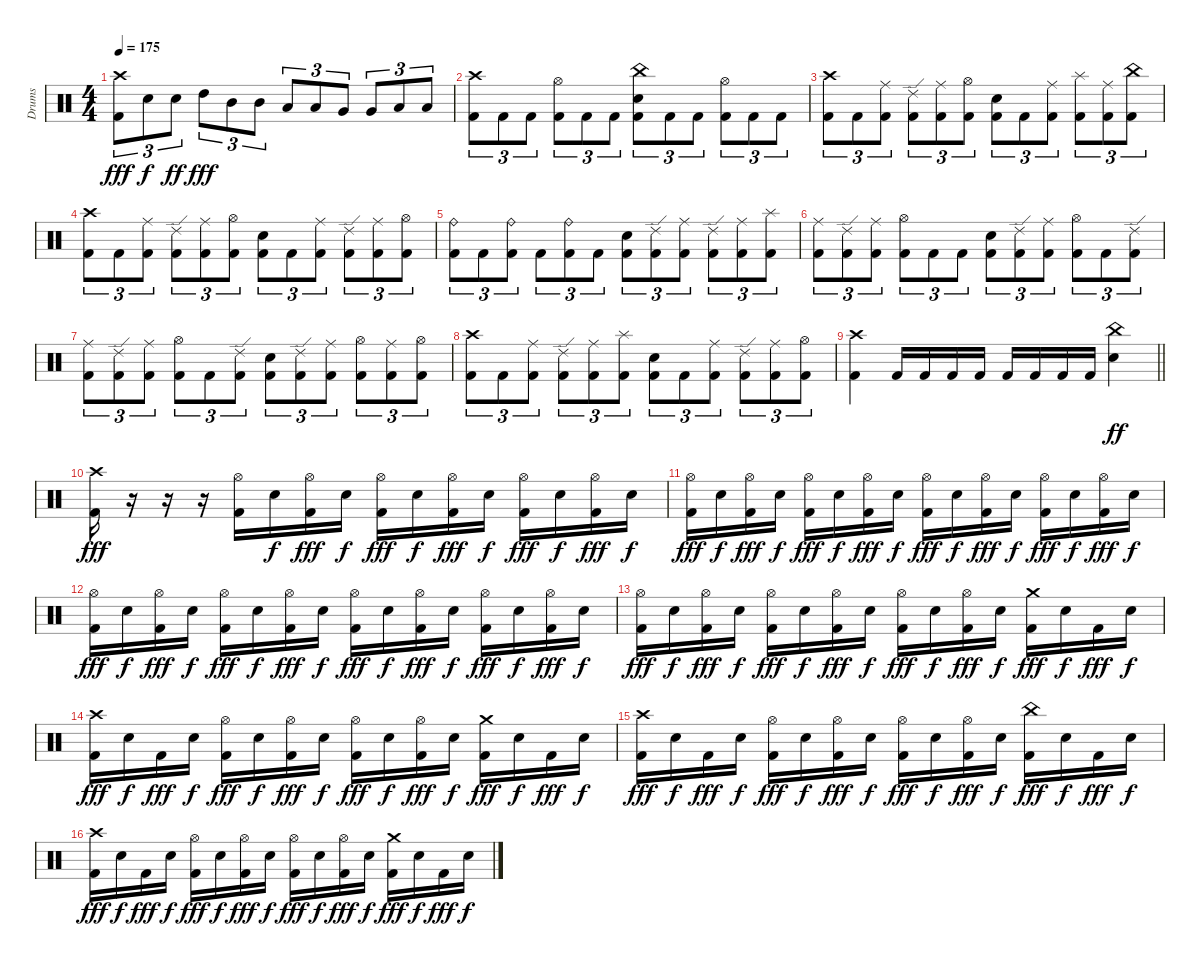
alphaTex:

\track ("Drums" "Drums") {instrument percussion}
\staff {score}
\articulation defaults
\ts (4 4)
\tempo 175
\clef neutral
\ks c
("Crash high (hit)" "Kick (hit) 2").8{tu (3 2) dy fff} "Snare (hit) 2".8{tu (3 2) dy f} "Snare (hit) 2".8{tu (3 2) dy ff} "High Tom (hit)".8{tu (3 2) dy fff} "Mid Tom (hit)".8{tu (3 2)} "Mid Tom (hit)".8{tu (3 2)} "Low Tom (hit)".8{tu (3 2)} "Low Tom (hit)".8{tu (3 2)} "Very Low Tom (hit)".8{tu (3 2)} "Very Low Tom (hit)".8{tu (3 2)} "Low Floor Tom (hit)".8{tu (3 2)} "Low Floor Tom (hit)".8{tu (3 2)} |
("Crash high (hit)" "Kick (hit) 2").8{tu (3 2)} "Kick (hit) 2".8{tu (3 2)} "Kick (hit) 2".8{tu (3 2)} ("Hi-Hat (open)" "Kick (hit) 2").8{tu (3 2)} "Kick (hit) 2".8{tu (3 2)} "Kick (hit) 2".8{tu (3 2)} ("China (hit)" "Snare (hit) 2" "Kick (hit) 2").8{tu (3 2)} "Kick (hit) 2".8{tu (3 2)} "Kick (hit) 2".8{tu (3 2)} ("Hi-Hat (open)" "Kick (hit) 2").8{tu (3 2)} "Kick (hit) 2".8{tu (3 2)} "Kick (hit) 2".8{tu (3 2)} |
("Crash high (hit)" "Kick (hit) 2").8{tu (3 2)} "Kick (hit) 2".8{tu (3 2)} ("Ride (middle)" "Kick (hit) 2").8{tu (3 2)} ("Ride (edge) 2" "Kick (hit) 2").8{tu (3 2)} ("Ride (middle)" "Kick (hit) 2").8{tu (3 2)} ("Hi-Hat (open)" "Kick (hit) 2").8{tu (3 2)} ("Snare (hit) 2" "Kick (hit) 2").8{tu (3 2)} "Kick (hit) 2".8{tu (3 2)} ("Ride (middle)" "Kick (hit) 2").8{tu (3 2)} ("Splash (hit)" "Kick (hit) 2").8{tu (3 2)} ("Ride (middle)" "Kick (hit) 2").8{tu (3 2)} ("China (hit)" "Kick (hit) 2").8{tu (3 2)} |
("Crash high (hit)" "Kick (hit) 2").8{tu (3 2)} "Kick (hit) 2".8{tu (3 2)} ("Ride (middle)" "Kick (hit) 2").8{tu (3 2)} ("Ride (edge) 2" "Kick (hit) 2").8{tu (3 2)} ("Ride (middle)" "Kick (hit) 2").8{tu (3 2)} ("Hi-Hat (open)" "Kick (hit) 2").8{tu (3 2)} ("Snare (hit) 2" "Kick (hit) 2").8{tu (3 2)} "Kick (hit) 2".8{tu (3 2)} ("Ride (middle)" "Kick (hit) 2").8{tu (3 2)} ("Ride (edge) 2" "Kick (hit) 2").8{tu (3 2)} ("Ride (middle)" "Kick (hit) 2").8{tu (3 2)} ("Hi-Hat (open)" "Kick (hit) 2").8{tu (3 2)} |
("Ride (bell)" "Kick (hit) 2").8{tu (3 2)} "Kick (hit) 2".8{tu (3 2)} ("Ride (bell)" "Kick (hit) 2").8{tu (3 2)} "Kick (hit) 2".8{tu (3 2)} ("Ride (bell)" "Kick (hit) 2").8{tu (3 2)} "Kick (hit) 2".8{tu (3 2)} ("Snare (hit) 2" "Kick (hit) 2").8{tu (3 2)} ("Ride (edge) 2" "Kick (hit) 2").8{tu (3 2)} ("Ride (middle)" "Kick (hit) 2").8{tu (3 2)} ("Ride (edge) 2" "Kick (hit) 2").8{tu (3 2)} ("Ride (middle)" "Kick (hit) 2").8{tu (3 2)} ("Splash (hit)" "Kick (hit) 2").8{tu (3 2)} |
("Ride (middle)" "Kick (hit) 2").8{tu (3 2)} ("Ride (edge) 2" "Kick (hit) 2").8{tu (3 2)} ("Ride (middle)" "Kick (hit) 2").8{tu (3 2)} ("Hi-Hat (open)" "Kick (hit) 2").8{tu (3 2)} "Kick (hit) 2".8{tu (3 2)} "Kick (hit) 2".8{tu (3 2)} ("Snare (hit) 2" "Kick (hit) 2").8{tu (3 2)} ("Ride (edge) 2" "Kick (hit) 2").8{tu (3 2)} ("Ride (middle)" "Kick (hit) 2").8{tu (3 2)} ("Hi-Hat (open)" "Kick (hit) 2").8{tu (3 2)} "Kick (hit) 2".8{tu (3 2)} ("Ride (edge) 2" "Kick (hit) 2").8{tu (3 2)} |
("Ride (middle)" "Kick (hit) 2").8{tu (3 2)} ("Ride (edge) 2" "Kick (hit) 2").8{tu (3 2)} ("Ride (middle)" "Kick (hit) 2").8{tu (3 2)} ("Hi-Hat (open)" "Kick (hit) 2").8{tu (3 2)} "Kick (hit) 2".8{tu (3 2)} ("Ride (edge) 2" "Kick (hit) 2").8{tu (3 2)} ("Snare (hit) 2" "Kick (hit) 2").8{tu (3 2)} ("Ride (edge) 2" "Kick (hit) 2").8{tu (3 2)} ("Ride (middle)" "Kick (hit) 2").8{tu (3 2)} ("Hi-Hat (open)" "Kick (hit) 2").8{tu (3 2)} ("Ride (middle)" "Kick (hit) 2").8{tu (3 2)} ("Hi-Hat (open)" "Kick (hit) 2").8{tu (3 2)} |
("Crash high (hit)" "Kick (hit) 2").8{tu (3 2)} "Kick (hit) 2".8{tu (3 2)} ("Ride (middle)" "Kick (hit) 2").8{tu (3 2)} ("Ride (edge) 2" "Kick (hit) 2").8{tu (3 2)} ("Ride (middle)" "Kick (hit) 2").8{tu (3 2)} ("Splash (hit)" "Kick (hit) 2").8{tu (3 2)} ("Snare (hit) 2" "Kick (hit) 2").8{tu (3 2)} "Kick (hit) 2".8{tu (3 2)} ("Ride (middle)" "Kick (hit) 2").8{tu (3 2)} ("Ride (edge) 2" "Kick (hit) 2").8{tu (3 2)} ("Ride (middle)" "Kick (hit) 2").8{tu (3 2)} ("Hi-Hat (open)" "Kick (hit) 2").8{tu (3 2)} |
\barLineRight lightlight
("Crash high (hit)" "Kick (hit) 2").4 "Kick (hit) 2".16 "Kick (hit) 2".16 "Kick (hit) 2".16 "Kick (hit) 2".16 "Kick (hit) 2".16 "Kick (hit) 2".16 "Kick (hit) 2".16 "Kick (hit) 2".16 ("China (hit)" "Snare (hit) 2").4{dy ff} |
("Crash high (hit)" "Kick (hit) 2").16{dy fff} r.16 r.16 r.16 ("Hi-Hat (open)" "Kick (hit) 2").16 "Snare (hit) 2".16{dy f} ("Hi-Hat (open)" "Kick (hit) 2").16{dy fff} "Snare (hit) 2".16{dy f} ("Hi-Hat (open)" "Kick (hit) 2").16{dy fff} "Snare (hit) 2".16{dy f} ("Hi-Hat (open)" "Kick (hit) 2").16{dy fff} "Snare (hit) 2".16{dy f} ("Hi-Hat (open)" "Kick (hit) 2").16{dy fff} "Snare (hit) 2".16{dy f} ("Hi-Hat (open)" "Kick (hit) 2").16{dy fff} "Snare (hit) 2".16{dy f} |
("Hi-Hat (open)" "Kick (hit) 2").16{dy fff} "Snare (hit) 2".16{dy f} ("Hi-Hat (open)" "Kick (hit) 2").16{dy fff} "Snare (hit) 2".16{dy f} ("Hi-Hat (open)" "Kick (hit) 2").16{dy fff} "Snare (hit) 2".16{dy f} ("Hi-Hat (open)" "Kick (hit) 2").16{dy fff} "Snare (hit) 2".16{dy f} ("Hi-Hat (open)" "Kick (hit) 2").16{dy fff} "Snare (hit) 2".16{dy f} ("Hi-Hat (open)" "Kick (hit) 2").16{dy fff} "Snare (hit) 2".16{dy f} ("Hi-Hat (open)" "Kick (hit) 2").16{dy fff} "Snare (hit) 2".16{dy f} ("Hi-Hat (open)" "Kick (hit) 2").16{dy fff} "Snare (hit) 2".16{dy f} |
("Hi-Hat (open)" "Kick (hit) 2").16{dy fff} "Snare (hit) 2".16{dy f} ("Hi-Hat (open)" "Kick (hit) 2").16{dy fff} "Snare (hit) 2".16{dy f} ("Hi-Hat (open)" "Kick (hit) 2").16{dy fff} "Snare (hit) 2".16{dy f} ("Hi-Hat (open)" "Kick (hit) 2").16{dy fff} "Snare (hit) 2".16{dy f} ("Hi-Hat (open)" "Kick (hit) 2").16{dy fff} "Snare (hit) 2".16{dy f} ("Hi-Hat (open)" "Kick (hit) 2").16{dy fff} "Snare (hit) 2".16{dy f} ("Hi-Hat (open)" "Kick (hit) 2").16{dy fff} "Snare (hit) 2".16{dy f} ("Hi-Hat (open)" "Kick (hit) 2").16{dy fff} "Snare (hit) 2".16{dy f} |
("Hi-Hat (open)" "Kick (hit) 2").16{dy fff} "Snare (hit) 2".16{dy f} ("Hi-Hat (open)" "Kick (hit) 2").16{dy fff} "Snare (hit) 2".16{dy f} ("Hi-Hat (open)" "Kick (hit) 2").16{dy fff} "Snare (hit) 2".16{dy f} ("Hi-Hat (open)" "Kick (hit) 2").16{dy fff} "Snare (hit) 2".16{dy f} ("Hi-Hat (open)" "Kick (hit) 2").16{dy fff} "Snare (hit) 2".16{dy f} ("Hi-Hat (open)" "Kick (hit) 2").16{dy fff} "Snare (hit) 2".16{dy f} ("Crash medium (hit)" "Kick (hit) 2").16{dy fff} "Snare (hit) 2".16{dy f} "Kick (hit) 2".16{dy fff} "Snare (hit) 2".16{dy f} |
("Crash high (hit)" "Kick (hit) 2").16{dy fff} "Snare (hit) 2".16{dy f} "Kick (hit) 2".16{dy fff} "Snare (hit) 2".16{dy f} ("Hi-Hat (open)" "Kick (hit) 2").16{dy fff} "Snare (hit) 2".16{dy f} ("Hi-Hat (open)" "Kick (hit) 2").16{dy fff} "Snare (hit) 2".16{dy f} ("Hi-Hat (open)" "Kick (hit) 2").16{dy fff} "Snare (hit) 2".16{dy f} ("Hi-Hat (open)" "Kick (hit) 2").16{dy fff} "Snare (hit) 2".16{dy f} ("Crash medium (hit)" "Kick (hit) 2").16{dy fff} "Snare (hit) 2".16{dy f} "Kick (hit) 2".16{dy fff} "Snare (hit) 2".16{dy f} |
("Crash high (hit)" "Kick (hit) 2").16{dy fff} "Snare (hit) 2".16{dy f} "Kick (hit) 2".16{dy fff} "Snare (hit) 2".16{dy f} ("Hi-Hat (open)" "Kick (hit) 2").16{dy fff} "Snare (hit) 2".16{dy f} ("Hi-Hat (open)" "Kick (hit) 2").16{dy fff} "Snare (hit) 2".16{dy f} ("Hi-Hat (open)" "Kick (hit) 2").16{dy fff} "Snare (hit) 2".16{dy f} ("Hi-Hat (open)" "Kick (hit) 2").16{dy fff} "Snare (hit) 2".16{dy f} ("China (hit)" "Kick (hit) 2").16{dy fff} "Snare (hit) 2".16{dy f} "Kick (hit) 2".16{dy fff} "Snare (hit) 2".16{dy f} |
("Crash high (hit)" "Kick (hit) 2").16{dy fff} "Snare (hit) 2".16{dy f} "Kick (hit) 2".16{dy fff} "Snare (hit) 2".16{dy f} ("Hi-Hat (open)" "Kick (hit) 2").16{dy fff} "Snare (hit) 2".16{dy f} ("Hi-Hat (open)" "Kick (hit) 2").16{dy fff} "Snare (hit) 2".16{dy f} ("Hi-Hat (open)" "Kick (hit) 2").16{dy fff} "Snare (hit) 2".16{dy f} ("Hi-Hat (open)" "Kick (hit) 2").16{dy fff} "Snare (hit) 2".16{dy f} ("Crash medium (hit)" "Kick (hit) 2").16{dy fff} "Snare (hit) 2".16{dy f} "Kick (hit) 2".16{dy fff} "Snare (hit) 2".16{dy f}
